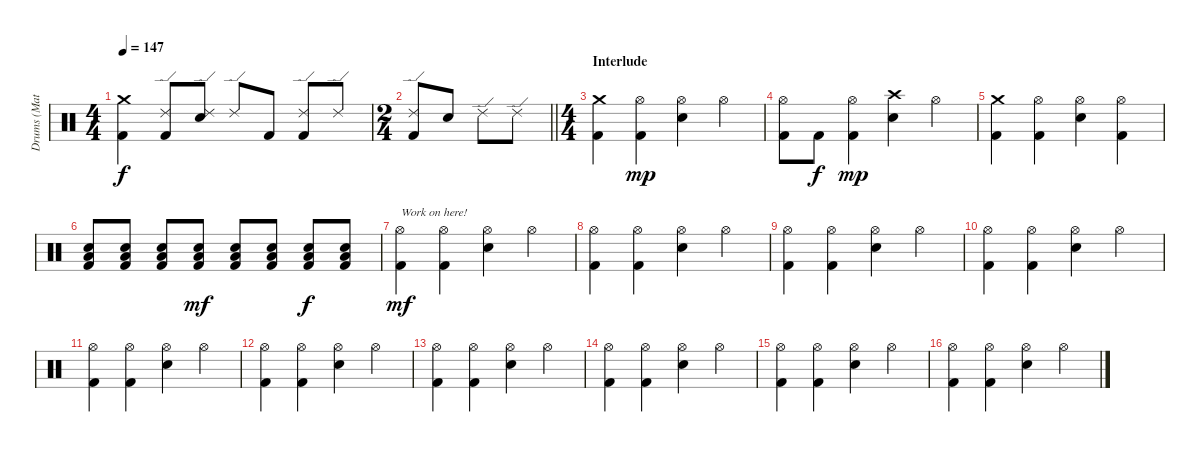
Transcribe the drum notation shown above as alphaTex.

\track ("Drums (Matt Laug)" "Drums (Mat") {instrument percussion}
\staff {score}
\articulation defaults
\ts (4 4)
\tempo 147
\clef neutral
\ks c
("Crash medium (hit)" "Kick (hit) 2").4{dy f} ("Ride (edge) 2" "Kick (hit) 2").8 ("Ride (edge) 2" "Electric Snare (hit)").8 "Ride (edge) 2".8 "Kick (hit) 2".8 ("Ride (edge) 2" "Kick (hit) 2").8 "Ride (edge) 2".8 |
\ts (2 4)
\barLineRight lightlight
("Ride (edge) 2" "Kick (hit) 2").8 "Electric Snare (hit)".8 "Ride (edge) 2".8 "Ride (edge) 2".8 |
\ts (4 4)
\section ("" "Interlude")
("Crash medium (hit)" "Kick (hit) 2").4 ("Hi-Hat (open)" "Kick (hit) 2").4{dy mp} ("Hi-Hat (open)" "Electric Snare (hit)").4 "Hi-Hat (open)".4 |
("Hi-Hat (open)" "Kick (hit) 2").8 "Kick (hit) 2".8{dy f} ("Hi-Hat (open)" "Kick (hit) 2").4{dy mp} ("Crash high (hit)" "Electric Snare (hit)").4 "Hi-Hat (open)".4 |
("Crash medium (hit)" "Kick (hit) 2").4 ("Hi-Hat (open)" "Kick (hit) 2").4 ("Hi-Hat (open)" "Electric Snare (hit)").4 ("Hi-Hat (open)" "Kick (hit) 2").4 |
("Electric Snare (hit)" "Low Floor Tom (hit)" "Kick (hit) 2").8 ("Electric Snare (hit)" "Low Floor Tom (hit)" "Kick (hit) 2").8 ("Electric Snare (hit)" "Low Floor Tom (hit)" "Kick (hit) 2").8 ("Electric Snare (hit)" "Low Floor Tom (hit)" "Kick (hit) 2").8{dy mf} ("Electric Snare (hit)" "Low Floor Tom (hit)" "Kick (hit) 2").8 ("Electric Snare (hit)" "Low Floor Tom (hit)" "Kick (hit) 2").8 ("Electric Snare (hit)" "Low Floor Tom (hit)" "Kick (hit) 2").8{dy f} ("Electric Snare (hit)" "Low Floor Tom (hit)" "Kick (hit) 2").8 |
("Hi-Hat (open)" "Kick (hit) 2").4{txt "Work on here!" dy mf} ("Hi-Hat (open)" "Kick (hit) 2").4 ("Hi-Hat (open)" "Electric Snare (hit)").4 "Hi-Hat (open)".4 |
("Hi-Hat (open)" "Kick (hit) 2").4 ("Hi-Hat (open)" "Kick (hit) 2").4 ("Hi-Hat (open)" "Electric Snare (hit)").4 "Hi-Hat (open)".4 |
("Hi-Hat (open)" "Kick (hit) 2").4 ("Hi-Hat (open)" "Kick (hit) 2").4 ("Hi-Hat (open)" "Electric Snare (hit)").4 "Hi-Hat (open)".4 |
("Hi-Hat (open)" "Kick (hit) 2").4 ("Hi-Hat (open)" "Kick (hit) 2").4 ("Hi-Hat (open)" "Electric Snare (hit)").4 "Hi-Hat (open)".4 |
("Hi-Hat (open)" "Kick (hit) 2").4 ("Hi-Hat (open)" "Kick (hit) 2").4 ("Hi-Hat (open)" "Electric Snare (hit)").4 "Hi-Hat (open)".4 |
("Hi-Hat (open)" "Kick (hit) 2").4 ("Hi-Hat (open)" "Kick (hit) 2").4 ("Hi-Hat (open)" "Electric Snare (hit)").4 "Hi-Hat (open)".4 |
("Hi-Hat (open)" "Kick (hit) 2").4 ("Hi-Hat (open)" "Kick (hit) 2").4 ("Hi-Hat (open)" "Electric Snare (hit)").4 "Hi-Hat (open)".4 |
("Hi-Hat (open)" "Kick (hit) 2").4 ("Hi-Hat (open)" "Kick (hit) 2").4 ("Hi-Hat (open)" "Electric Snare (hit)").4 "Hi-Hat (open)".4 |
("Hi-Hat (open)" "Kick (hit) 2").4 ("Hi-Hat (open)" "Kick (hit) 2").4 ("Hi-Hat (open)" "Electric Snare (hit)").4 "Hi-Hat (open)".4 |
("Hi-Hat (open)" "Kick (hit) 2").4 ("Hi-Hat (open)" "Kick (hit) 2").4 ("Hi-Hat (open)" "Electric Snare (hit)").4 "Hi-Hat (open)".4
